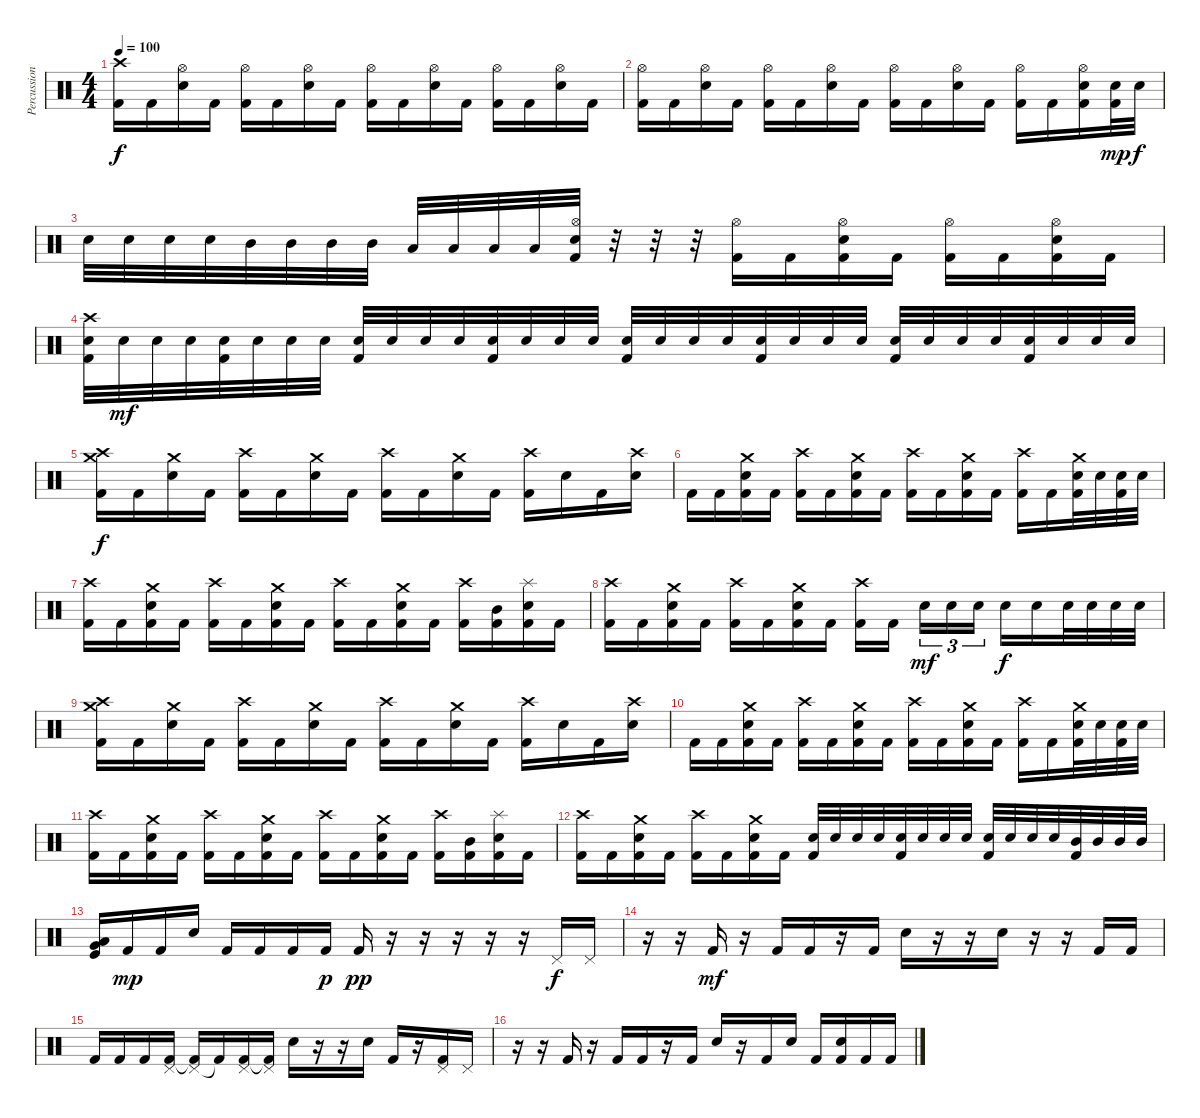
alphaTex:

\track ("Percussion" "Percussion") {instrument percussion}
\staff {score}
\articulation defaults
\ts (4 4)
\tempo 100
\clef neutral
\ks c
("Crash high (hit)" "Kick (hit) 2").16{dy f} "Kick (hit) 2".16 ("Hi-Hat (open)" "Electric Snare (hit)").16 "Kick (hit) 2".16 ("Hi-Hat (open)" "Kick (hit) 2").16 "Kick (hit) 2".16 ("Hi-Hat (open)" "Electric Snare (hit)").16 "Kick (hit) 2".16 ("Hi-Hat (open)" "Kick (hit) 2").16 "Kick (hit) 2".16 ("Hi-Hat (open)" "Electric Snare (hit)").16 "Kick (hit) 2".16 ("Hi-Hat (open)" "Kick (hit) 2").16 "Kick (hit) 2".16 ("Hi-Hat (open)" "Electric Snare (hit)").16 "Kick (hit) 2".16 |
("Hi-Hat (open)" "Kick (hit) 2").16 "Kick (hit) 2".16 ("Hi-Hat (open)" "Electric Snare (hit)").16 "Kick (hit) 2".16 ("Hi-Hat (open)" "Kick (hit) 2").16 "Kick (hit) 2".16 ("Hi-Hat (open)" "Electric Snare (hit)").16 "Kick (hit) 2".16 ("Hi-Hat (open)" "Kick (hit) 2").16 "Kick (hit) 2".16 ("Hi-Hat (open)" "Electric Snare (hit)").16 "Kick (hit) 2".16 ("Hi-Hat (open)" "Kick (hit) 2").16 "Kick (hit) 2".16 ("Hi-Hat (open)" "Electric Snare (hit)" "Kick (hit) 2").16 ("Electric Snare (hit)" "Kick (hit) 2").32{dy mp} "Electric Snare (hit)".32{dy f} |
"Electric Snare (hit)".32 "Electric Snare (hit)".32 "Electric Snare (hit)".32 "Electric Snare (hit)".32 "Mid Tom (hit)".32 "Mid Tom (hit)".32 "Mid Tom (hit)".32 "Mid Tom (hit)".32 "Low Tom (hit)".32 "Low Tom (hit)".32 "Low Tom (hit)".32 "Low Tom (hit)".32 ("Hi-Hat (open)" "Electric Snare (hit)" "Kick (hit) 2").32 r.32 r.32 r.32 ("Hi-Hat (open)" "Kick (hit) 2").16 "Kick (hit) 2".16 ("Hi-Hat (open)" "Electric Snare (hit)" "Kick (hit) 2").16 "Kick (hit) 2".16 ("Hi-Hat (open)" "Kick (hit) 2").16 "Kick (hit) 2".16 ("Hi-Hat (open)" "Electric Snare (hit)" "Kick (hit) 2").16 "Kick (hit) 2".16 |
("Crash high (hit)" "Electric Snare (hit)" "Kick (hit) 2").32 "Electric Snare (hit)".32{dy mf} "Electric Snare (hit)".32 "Electric Snare (hit)".32 ("Electric Snare (hit)" "Kick (hit) 2").32 "Electric Snare (hit)".32 "Electric Snare (hit)".32 "Electric Snare (hit)".32 ("Electric Snare (hit)" "Kick (hit) 2").32 "Electric Snare (hit)".32 "Electric Snare (hit)".32 "Electric Snare (hit)".32 ("Electric Snare (hit)" "Kick (hit) 2").32 "Electric Snare (hit)".32 "Electric Snare (hit)".32 "Electric Snare (hit)".32 ("Electric Snare (hit)" "Kick (hit) 2").32 "Electric Snare (hit)".32 "Electric Snare (hit)".32 "Electric Snare (hit)".32 ("Electric Snare (hit)" "Kick (hit) 2").32 "Electric Snare (hit)".32 "Electric Snare (hit)".32 "Electric Snare (hit)".32 ("Electric Snare (hit)" "Kick (hit) 2").32 "Electric Snare (hit)".32 "Electric Snare (hit)".32 "Electric Snare (hit)".32 ("Electric Snare (hit)" "Kick (hit) 2").32 "Electric Snare (hit)".32 "Electric Snare (hit)".32 "Electric Snare (hit)".32 |
("Crash high (hit)" "Crash medium (hit)" "Kick (hit) 2").16{dy f} "Kick (hit) 2".16 ("Crash medium (hit)" "Electric Snare (hit)").16 "Kick (hit) 2".16 ("Crash high (hit)" "Kick (hit) 2").16 "Kick (hit) 2".16 ("Crash medium (hit)" "Electric Snare (hit)").16 "Kick (hit) 2".16 ("Crash high (hit)" "Kick (hit) 2").16 "Kick (hit) 2".16 ("Crash medium (hit)" "Electric Snare (hit)").16 "Kick (hit) 2".16 ("Crash high (hit)" "Kick (hit) 2").16 "Electric Snare (hit)".16 "Kick (hit) 2".16 ("Crash high (hit)" "Electric Snare (hit)").16 |
"Kick (hit) 2".16 "Kick (hit) 2".16 ("Crash medium (hit)" "Electric Snare (hit)" "Kick (hit) 2").16 "Kick (hit) 2".16 ("Crash high (hit)" "Kick (hit) 2").16 "Kick (hit) 2".16 ("Crash medium (hit)" "Electric Snare (hit)" "Kick (hit) 2").16 "Kick (hit) 2".16 ("Crash high (hit)" "Kick (hit) 2").16 "Kick (hit) 2".16 ("Crash medium (hit)" "Electric Snare (hit)" "Kick (hit) 2").16 "Kick (hit) 2".16 ("Crash high (hit)" "Kick (hit) 2").16 "Kick (hit) 2".16 ("Crash medium (hit)" "Electric Snare (hit)" "Kick (hit) 2").32 "Electric Snare (hit)".32 ("Electric Snare (hit)" "Kick (hit) 2").32 "Electric Snare (hit)".32 |
("Crash high (hit)" "Kick (hit) 2").16 "Kick (hit) 2".16 ("Crash medium (hit)" "Electric Snare (hit)" "Kick (hit) 2").16 "Kick (hit) 2".16 ("Crash high (hit)" "Kick (hit) 2").16 "Kick (hit) 2".16 ("Crash medium (hit)" "Electric Snare (hit)" "Kick (hit) 2").16 "Kick (hit) 2".16 ("Crash high (hit)" "Kick (hit) 2").16 "Kick (hit) 2".16 ("Crash medium (hit)" "Electric Snare (hit)" "Kick (hit) 2").16 "Kick (hit) 2".16 ("Crash high (hit)" "Kick (hit) 2").16 ("Mid Tom (hit)" "Kick (hit) 2").16 ("Splash (hit)" "Electric Snare (hit)" "Kick (hit) 2").16 "Kick (hit) 2".16 |
("Crash high (hit)" "Kick (hit) 2").16 "Kick (hit) 2".16 ("Crash medium (hit)" "Electric Snare (hit)" "Kick (hit) 2").16 "Kick (hit) 2".16 ("Crash high (hit)" "Kick (hit) 2").16 "Kick (hit) 2".16 ("Crash medium (hit)" "Electric Snare (hit)" "Kick (hit) 2").16 "Kick (hit) 2".16 ("Crash high (hit)" "Kick (hit) 2").16 "Kick (hit) 2".16{beam splitsecondary} "Electric Snare (hit)".16{tu (3 2) dy mf} "Electric Snare (hit)".16{tu (3 2)} "Electric Snare (hit)".16{tu (3 2)} "Electric Snare (hit)".16{dy f} "Electric Snare (hit)".16 "Electric Snare (hit)".32 "Electric Snare (hit)".32 "Electric Snare (hit)".32 "Electric Snare (hit)".32 |
("Crash high (hit)" "Crash medium (hit)" "Kick (hit) 2").16 "Kick (hit) 2".16 ("Crash medium (hit)" "Electric Snare (hit)").16 "Kick (hit) 2".16 ("Crash high (hit)" "Kick (hit) 2").16 "Kick (hit) 2".16 ("Crash medium (hit)" "Electric Snare (hit)").16 "Kick (hit) 2".16 ("Crash high (hit)" "Kick (hit) 2").16 "Kick (hit) 2".16 ("Crash medium (hit)" "Electric Snare (hit)").16 "Kick (hit) 2".16 ("Crash high (hit)" "Kick (hit) 2").16 "Electric Snare (hit)".16 "Kick (hit) 2".16 ("Crash high (hit)" "Electric Snare (hit)").16 |
"Kick (hit) 2".16 "Kick (hit) 2".16 ("Crash medium (hit)" "Electric Snare (hit)" "Kick (hit) 2").16 "Kick (hit) 2".16 ("Crash high (hit)" "Kick (hit) 2").16 "Kick (hit) 2".16 ("Crash medium (hit)" "Electric Snare (hit)" "Kick (hit) 2").16 "Kick (hit) 2".16 ("Crash high (hit)" "Kick (hit) 2").16 "Kick (hit) 2".16 ("Crash medium (hit)" "Electric Snare (hit)" "Kick (hit) 2").16 "Kick (hit) 2".16 ("Crash high (hit)" "Kick (hit) 2").16 "Kick (hit) 2".16 ("Crash medium (hit)" "Electric Snare (hit)" "Kick (hit) 2").32 "Electric Snare (hit)".32 ("Electric Snare (hit)" "Kick (hit) 2").32 "Electric Snare (hit)".32 |
("Crash high (hit)" "Kick (hit) 2").16 "Kick (hit) 2".16 ("Crash medium (hit)" "Electric Snare (hit)" "Kick (hit) 2").16 "Kick (hit) 2".16 ("Crash high (hit)" "Kick (hit) 2").16 "Kick (hit) 2".16 ("Crash medium (hit)" "Electric Snare (hit)" "Kick (hit) 2").16 "Kick (hit) 2".16 ("Crash high (hit)" "Kick (hit) 2").16 "Kick (hit) 2".16 ("Crash medium (hit)" "Electric Snare (hit)" "Kick (hit) 2").16 "Kick (hit) 2".16 ("Crash high (hit)" "Kick (hit) 2").16 ("Mid Tom (hit)" "Kick (hit) 2").16 ("Splash (hit)" "Electric Snare (hit)" "Kick (hit) 2").16 "Kick (hit) 2".16 |
("Crash high (hit)" "Kick (hit) 2").16 "Kick (hit) 2".16 ("Crash medium (hit)" "Electric Snare (hit)" "Kick (hit) 2").16 "Kick (hit) 2".16 ("Crash high (hit)" "Kick (hit) 2").16 "Kick (hit) 2".16 ("Crash medium (hit)" "Electric Snare (hit)" "Kick (hit) 2").16 "Kick (hit) 2".16 ("Electric Snare (hit)" "Kick (hit) 2").32 "Electric Snare (hit)".32 "Electric Snare (hit)".32 "Electric Snare (hit)".32 ("Electric Snare (hit)" "Kick (hit) 2").32 "Electric Snare (hit)".32 "Electric Snare (hit)".32 "Electric Snare (hit)".32 ("Electric Snare (hit)" "Kick (hit) 2").32 "Electric Snare (hit)".32 "Electric Snare (hit)".32 "Electric Snare (hit)".32 ("Mid Tom (hit)" "Kick (hit) 2").32 "Mid Tom (hit)".32 "Mid Tom (hit)".32 "Mid Tom (hit)".32 |
("Very Low Tom (hit)" "Low Tom (hit)" "Kick (hit)").16 "Kick (hit) 2".16{dy mp} "Kick (hit) 2".16 "Snare (hit) 2".16 "Kick (hit) 2".16 "Kick (hit) 2".16 "Kick (hit) 2".16 "Kick (hit) 2".16{dy p} "Kick (hit) 2".16{dy pp} r.16 r.16 r.16 r.16 r.16 "Pedal Hi-Hat (hit)".16{dy f} "Pedal Hi-Hat (hit)".16 |
r.16 r.16 "Kick (hit) 2".16{dy mf} r.16 "Kick (hit) 2".16 "Kick (hit) 2".16 r.16 "Kick (hit) 2".16 "Electric Snare (hit)".16 r.16 r.16 "Electric Snare (hit)".16 r.16 r.16 "Kick (hit) 2".16 "Kick (hit) 2".16 |
"Kick (hit) 2".16 "Kick (hit) 2".16 "Kick (hit) 2".16 ("Pedal Hi-Hat (hit)" "Kick (hit) 2").16 ("Pedal Hi-Hat (hit)" "Kick (hit) 2"{t}).16 "Kick (hit) 2"{t}.16 ("Pedal Hi-Hat (hit)" "Kick (hit) 2").16 ("Pedal Hi-Hat (hit)" "Kick (hit) 2"{t}).16 "Electric Snare (hit)".16 r.16 r.16 "Electric Snare (hit)".16 "Kick (hit) 2".16 r.16 ("Pedal Hi-Hat (hit)" "Kick (hit) 2").16 "Pedal Hi-Hat (hit)".16 |
r.16 r.16 "Kick (hit) 2".16 r.16 "Kick (hit) 2".16 "Kick (hit) 2".16 r.16 "Kick (hit) 2".16 "Electric Snare (hit)".16 r.16 "Kick (hit) 2".16 "Electric Snare (hit)".16 "Kick (hit) 2".16 ("Electric Snare (hit)" "Kick (hit) 2").16 "Kick (hit) 2".16 "Kick (hit) 2".16
